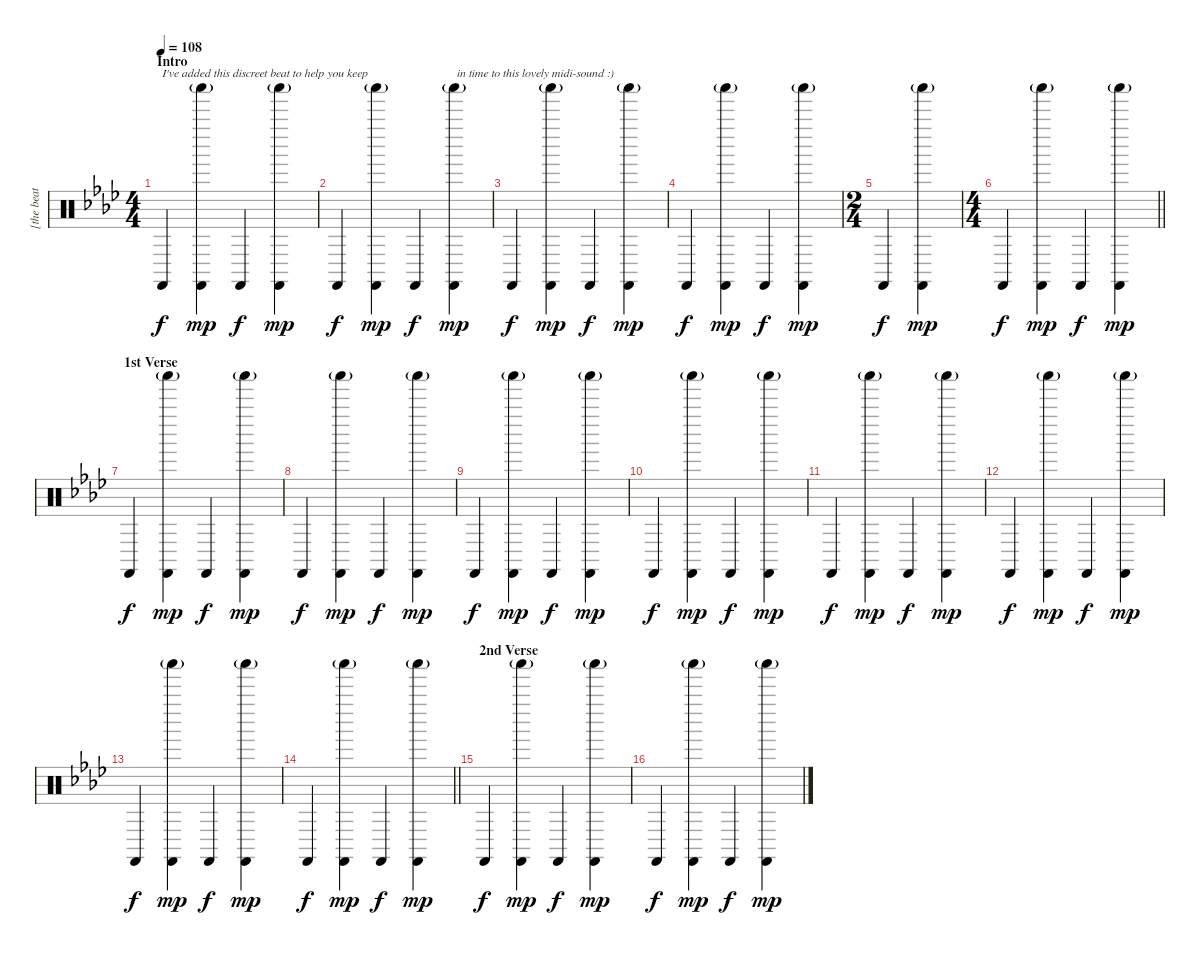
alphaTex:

\track (" [the beat]" " [the beat") {instrument percussion}
\staff {score}
\articulation defaults
\ts (4 4)
\section ("" "Intro")
\tempo 108
\clef neutral
\ks fminor "Castanets (hit)".4{txt "I've added this discreet beat to help you keep" dy f}
("Castanets (hit)" "Shaker (hit)"{g}).4{dy mp} "Castanets (hit)".4{dy f} ("Castanets (hit)" "Shaker (hit)"{g}).4{dy mp} |
"Castanets (hit)".4{dy f} ("Castanets (hit)" "Shaker (hit)"{g}).4{dy mp} "Castanets (hit)".4{dy f} ("Castanets (hit)" "Shaker (hit)"{g}).4{txt " in time to this lovely midi-sound :)" dy mp} |
"Castanets (hit)".4{dy f} ("Castanets (hit)" "Shaker (hit)"{g}).4{dy mp} "Castanets (hit)".4{dy f} ("Castanets (hit)" "Shaker (hit)"{g}).4{dy mp} |
"Castanets (hit)".4{dy f} ("Castanets (hit)" "Shaker (hit)"{g}).4{dy mp} "Castanets (hit)".4{dy f} ("Castanets (hit)" "Shaker (hit)"{g}).4{dy mp} |
\ts (2 4)
"Castanets (hit)".4{dy f} ("Castanets (hit)" "Shaker (hit)"{g}).4{dy mp} |
\ts (4 4)
\barLineRight lightlight "Castanets (hit)".4{dy f}
("Castanets (hit)" "Shaker (hit)"{g}).4{dy mp} "Castanets (hit)".4{dy f} ("Castanets (hit)" "Shaker (hit)"{g}).4{dy mp} |
\section ("" "1st Verse")
"Castanets (hit)".4{dy f} ("Castanets (hit)" "Shaker (hit)"{g}).4{dy mp} "Castanets (hit)".4{dy f} ("Castanets (hit)" "Shaker (hit)"{g}).4{dy mp} |
"Castanets (hit)".4{dy f} ("Castanets (hit)" "Shaker (hit)"{g}).4{dy mp} "Castanets (hit)".4{dy f} ("Castanets (hit)" "Shaker (hit)"{g}).4{dy mp} |
"Castanets (hit)".4{dy f} ("Castanets (hit)" "Shaker (hit)"{g}).4{dy mp} "Castanets (hit)".4{dy f} ("Castanets (hit)" "Shaker (hit)"{g}).4{dy mp} |
"Castanets (hit)".4{dy f} ("Castanets (hit)" "Shaker (hit)"{g}).4{dy mp} "Castanets (hit)".4{dy f} ("Castanets (hit)" "Shaker (hit)"{g}).4{dy mp} |
"Castanets (hit)".4{dy f} ("Castanets (hit)" "Shaker (hit)"{g}).4{dy mp} "Castanets (hit)".4{dy f} ("Castanets (hit)" "Shaker (hit)"{g}).4{dy mp} |
"Castanets (hit)".4{dy f} ("Castanets (hit)" "Shaker (hit)"{g}).4{dy mp} "Castanets (hit)".4{dy f} ("Castanets (hit)" "Shaker (hit)"{g}).4{dy mp} |
"Castanets (hit)".4{dy f} ("Castanets (hit)" "Shaker (hit)"{g}).4{dy mp} "Castanets (hit)".4{dy f} ("Castanets (hit)" "Shaker (hit)"{g}).4{dy mp} |
\barLineRight lightlight "Castanets (hit)".4{dy f}
("Castanets (hit)" "Shaker (hit)"{g}).4{dy mp} "Castanets (hit)".4{dy f} ("Castanets (hit)" "Shaker (hit)"{g}).4{dy mp} |
\section ("" "2nd Verse")
"Castanets (hit)".4{dy f} ("Castanets (hit)" "Shaker (hit)"{g}).4{dy mp} "Castanets (hit)".4{dy f} ("Castanets (hit)" "Shaker (hit)"{g}).4{dy mp} |
"Castanets (hit)".4{dy f} ("Castanets (hit)" "Shaker (hit)"{g}).4{dy mp} "Castanets (hit)".4{dy f} ("Castanets (hit)" "Shaker (hit)"{g}).4{dy mp}
